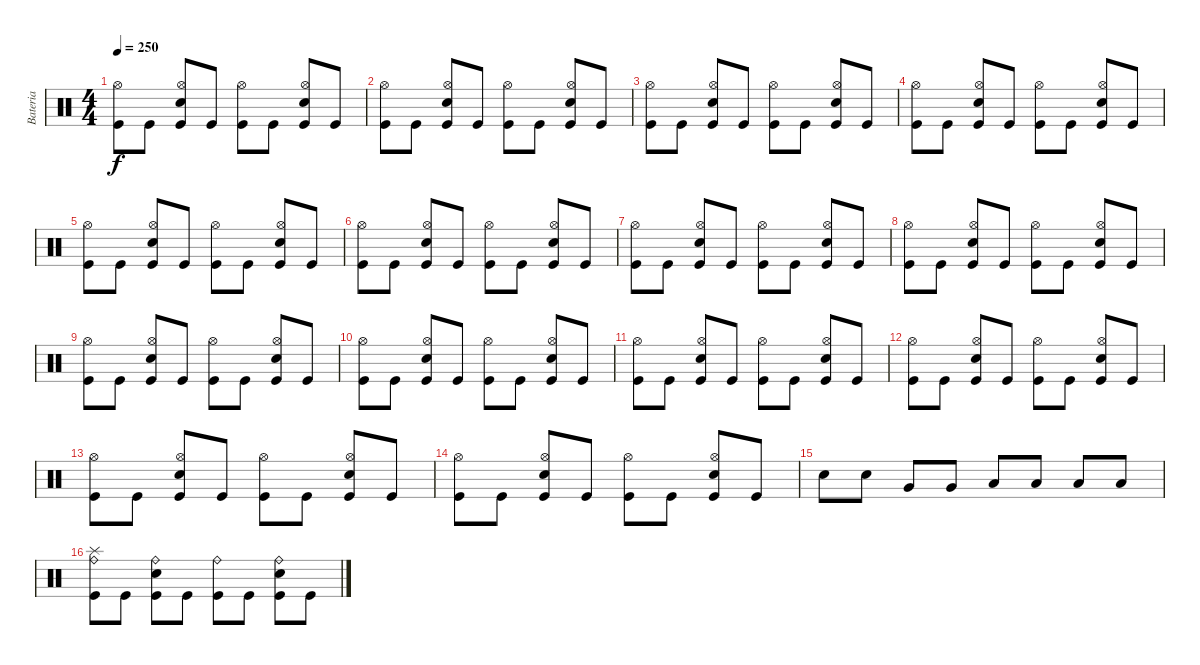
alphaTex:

\track ("Bateria" "Bateria") {instrument percussion}
\staff {score}
\articulation defaults
\ts (4 4)
\tempo 250
\clef neutral
\ks c
("Kick (hit)" "Hi-Hat (open)").8{dy f} "Kick (hit)".8 ("Kick (hit)" "Electric Snare (hit)" "Hi-Hat (open)").8 "Kick (hit)".8 ("Kick (hit)" "Hi-Hat (open)").8 "Kick (hit)".8 ("Kick (hit)" "Electric Snare (hit)" "Hi-Hat (open)").8 "Kick (hit)".8 |
("Kick (hit)" "Hi-Hat (open)").8 "Kick (hit)".8 ("Kick (hit)" "Electric Snare (hit)" "Hi-Hat (open)").8 "Kick (hit)".8 ("Kick (hit)" "Hi-Hat (open)").8 "Kick (hit)".8 ("Kick (hit)" "Electric Snare (hit)" "Hi-Hat (open)").8 "Kick (hit)".8 |
("Kick (hit)" "Hi-Hat (open)").8 "Kick (hit)".8 ("Kick (hit)" "Electric Snare (hit)" "Hi-Hat (open)").8 "Kick (hit)".8 ("Kick (hit)" "Hi-Hat (open)").8 "Kick (hit)".8 ("Kick (hit)" "Electric Snare (hit)" "Hi-Hat (open)").8 "Kick (hit)".8 |
("Kick (hit)" "Hi-Hat (open)").8 "Kick (hit)".8 ("Kick (hit)" "Electric Snare (hit)" "Hi-Hat (open)").8 "Kick (hit)".8 ("Kick (hit)" "Hi-Hat (open)").8 "Kick (hit)".8 ("Kick (hit)" "Electric Snare (hit)" "Hi-Hat (open)").8 "Kick (hit)".8 |
("Kick (hit)" "Hi-Hat (open)").8 "Kick (hit)".8 ("Kick (hit)" "Electric Snare (hit)" "Hi-Hat (open)").8 "Kick (hit)".8 ("Kick (hit)" "Hi-Hat (open)").8 "Kick (hit)".8 ("Kick (hit)" "Electric Snare (hit)" "Hi-Hat (open)").8 "Kick (hit)".8 |
("Kick (hit)" "Hi-Hat (open)").8 "Kick (hit)".8 ("Kick (hit)" "Electric Snare (hit)" "Hi-Hat (open)").8 "Kick (hit)".8 ("Kick (hit)" "Hi-Hat (open)").8 "Kick (hit)".8 ("Kick (hit)" "Electric Snare (hit)" "Hi-Hat (open)").8 "Kick (hit)".8 |
("Kick (hit)" "Hi-Hat (open)").8 "Kick (hit)".8 ("Kick (hit)" "Electric Snare (hit)" "Hi-Hat (open)").8 "Kick (hit)".8 ("Kick (hit)" "Hi-Hat (open)").8 "Kick (hit)".8 ("Kick (hit)" "Electric Snare (hit)" "Hi-Hat (open)").8 "Kick (hit)".8 |
("Kick (hit)" "Hi-Hat (open)").8 "Kick (hit)".8 ("Kick (hit)" "Electric Snare (hit)" "Hi-Hat (open)").8 "Kick (hit)".8 ("Kick (hit)" "Hi-Hat (open)").8 "Kick (hit)".8 ("Kick (hit)" "Electric Snare (hit)" "Hi-Hat (open)").8 "Kick (hit)".8 |
("Kick (hit)" "Hi-Hat (open)").8 "Kick (hit)".8 ("Kick (hit)" "Electric Snare (hit)" "Hi-Hat (open)").8 "Kick (hit)".8 ("Kick (hit)" "Hi-Hat (open)").8 "Kick (hit)".8 ("Kick (hit)" "Electric Snare (hit)" "Hi-Hat (open)").8 "Kick (hit)".8 |
("Kick (hit)" "Hi-Hat (open)").8 "Kick (hit)".8 ("Kick (hit)" "Electric Snare (hit)" "Hi-Hat (open)").8 "Kick (hit)".8 ("Kick (hit)" "Hi-Hat (open)").8 "Kick (hit)".8 ("Kick (hit)" "Electric Snare (hit)" "Hi-Hat (open)").8 "Kick (hit)".8 |
("Kick (hit)" "Hi-Hat (open)").8 "Kick (hit)".8 ("Kick (hit)" "Electric Snare (hit)" "Hi-Hat (open)").8 "Kick (hit)".8 ("Kick (hit)" "Hi-Hat (open)").8 "Kick (hit)".8 ("Kick (hit)" "Electric Snare (hit)" "Hi-Hat (open)").8 "Kick (hit)".8 |
("Kick (hit)" "Hi-Hat (open)").8 "Kick (hit)".8 ("Kick (hit)" "Electric Snare (hit)" "Hi-Hat (open)").8 "Kick (hit)".8 ("Kick (hit)" "Hi-Hat (open)").8 "Kick (hit)".8 ("Kick (hit)" "Electric Snare (hit)" "Hi-Hat (open)").8 "Kick (hit)".8 |
("Kick (hit)" "Hi-Hat (open)").8 "Kick (hit)".8 ("Kick (hit)" "Electric Snare (hit)" "Hi-Hat (open)").8 "Kick (hit)".8 ("Kick (hit)" "Hi-Hat (open)").8 "Kick (hit)".8 ("Kick (hit)" "Electric Snare (hit)" "Hi-Hat (open)").8 "Kick (hit)".8 |
("Kick (hit)" "Hi-Hat (open)").8 "Kick (hit)".8 ("Kick (hit)" "Electric Snare (hit)" "Hi-Hat (open)").8 "Kick (hit)".8 ("Kick (hit)" "Hi-Hat (open)").8 "Kick (hit)".8 ("Kick (hit)" "Electric Snare (hit)" "Hi-Hat (open)").8 "Kick (hit)".8 |
"Electric Snare (hit)".8 "Electric Snare (hit)".8 "Very Low Tom (hit)".8 "Very Low Tom (hit)".8 "Low Floor Tom (hit)".8 "Low Floor Tom (hit)".8 "Low Tom (hit)".8 "Low Tom (hit)".8 |
("Kick (hit)" "Ride (bell)" "Splash (hit)").8 "Kick (hit)".8 ("Kick (hit)" "Electric Snare (hit)" "Ride (bell)").8 "Kick (hit)".8 ("Kick (hit)" "Ride (bell)").8 "Kick (hit)".8 ("Kick (hit)" "Electric Snare (hit)" "Ride (bell)").8 "Kick (hit)".8
